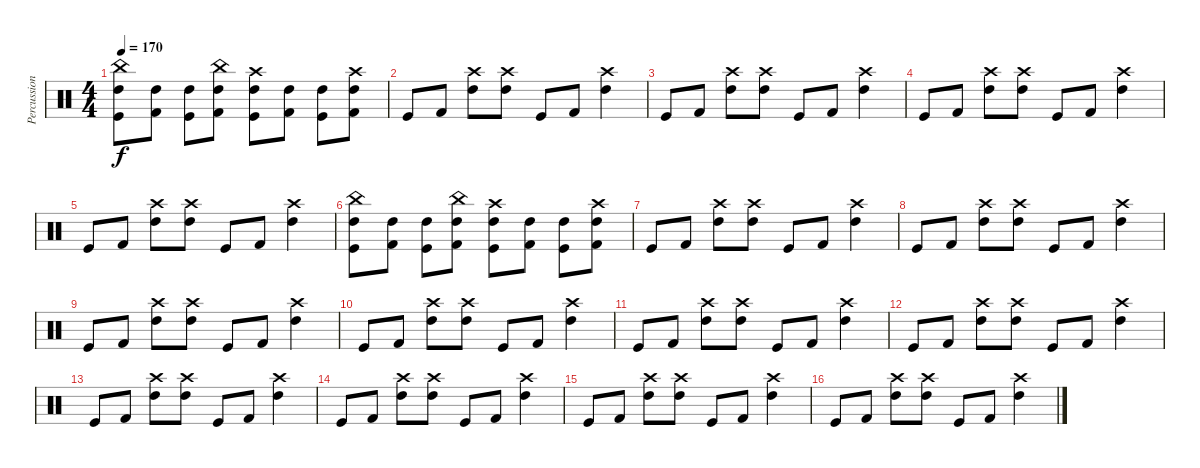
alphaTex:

\track ("Percussions" "Percussion") {instrument percussion}
\staff {score}
\articulation defaults
\ts (4 4)
\tempo 170
\clef neutral
\ks c
("China (hit)" "Kick (hit)" "High Tom (hit)").8{dy f} ("Kick (hit) 2" "High Tom (hit)").8 ("Kick (hit)" "High Tom (hit)").8 ("China (hit)" "Kick (hit) 2" "High Tom (hit)").8 ("Crash high (hit)" "Kick (hit)" "High Tom (hit)").8 ("Kick (hit) 2" "High Tom (hit)").8 ("Kick (hit)" "High Tom (hit)").8 ("Crash high (hit)" "Kick (hit) 2" "High Tom (hit)").8 |
"Kick (hit)".8 "Kick (hit) 2".8 ("Crash high (hit)" "High Tom (hit)").8 ("Crash high (hit)" "High Tom (hit)").8 "Kick (hit)".8 "Kick (hit) 2".8 ("Crash high (hit)" "High Tom (hit)").4 |
"Kick (hit)".8 "Kick (hit) 2".8 ("Crash high (hit)" "High Tom (hit)").8 ("Crash high (hit)" "High Tom (hit)").8 "Kick (hit)".8 "Kick (hit) 2".8 ("Crash high (hit)" "High Tom (hit)").4 |
"Kick (hit)".8 "Kick (hit) 2".8 ("Crash high (hit)" "High Tom (hit)").8 ("Crash high (hit)" "High Tom (hit)").8 "Kick (hit)".8 "Kick (hit) 2".8 ("Crash high (hit)" "High Tom (hit)").4 |
"Kick (hit)".8 "Kick (hit) 2".8 ("Crash high (hit)" "High Tom (hit)").8 ("Crash high (hit)" "High Tom (hit)").8 "Kick (hit)".8 "Kick (hit) 2".8 ("Crash high (hit)" "High Tom (hit)").4 |
("China (hit)" "Kick (hit)" "High Tom (hit)").8 ("Kick (hit) 2" "High Tom (hit)").8 ("Kick (hit)" "High Tom (hit)").8 ("China (hit)" "Kick (hit) 2" "High Tom (hit)").8 ("Crash high (hit)" "Kick (hit)" "High Tom (hit)").8 ("Kick (hit) 2" "High Tom (hit)").8 ("Kick (hit)" "High Tom (hit)").8 ("Crash high (hit)" "Kick (hit) 2" "High Tom (hit)").8 |
"Kick (hit)".8 "Kick (hit) 2".8 ("Crash high (hit)" "High Tom (hit)").8 ("Crash high (hit)" "High Tom (hit)").8 "Kick (hit)".8 "Kick (hit) 2".8 ("Crash high (hit)" "High Tom (hit)").4 |
"Kick (hit)".8 "Kick (hit) 2".8 ("Crash high (hit)" "High Tom (hit)").8 ("Crash high (hit)" "High Tom (hit)").8 "Kick (hit)".8 "Kick (hit) 2".8 ("Crash high (hit)" "High Tom (hit)").4 |
"Kick (hit)".8 "Kick (hit) 2".8 ("Crash high (hit)" "High Tom (hit)").8 ("Crash high (hit)" "High Tom (hit)").8 "Kick (hit)".8 "Kick (hit) 2".8 ("Crash high (hit)" "High Tom (hit)").4 |
"Kick (hit)".8 "Kick (hit) 2".8 ("Crash high (hit)" "High Tom (hit)").8 ("Crash high (hit)" "High Tom (hit)").8 "Kick (hit)".8 "Kick (hit) 2".8 ("Crash high (hit)" "High Tom (hit)").4 |
"Kick (hit)".8 "Kick (hit) 2".8 ("Crash high (hit)" "High Tom (hit)").8 ("Crash high (hit)" "High Tom (hit)").8 "Kick (hit)".8 "Kick (hit) 2".8 ("Crash high (hit)" "High Tom (hit)").4 |
"Kick (hit)".8 "Kick (hit) 2".8 ("Crash high (hit)" "High Tom (hit)").8 ("Crash high (hit)" "High Tom (hit)").8 "Kick (hit)".8 "Kick (hit) 2".8 ("Crash high (hit)" "High Tom (hit)").4 |
"Kick (hit)".8 "Kick (hit) 2".8 ("Crash high (hit)" "High Tom (hit)").8 ("Crash high (hit)" "High Tom (hit)").8 "Kick (hit)".8 "Kick (hit) 2".8 ("Crash high (hit)" "High Tom (hit)").4 |
"Kick (hit)".8 "Kick (hit) 2".8 ("Crash high (hit)" "High Tom (hit)").8 ("Crash high (hit)" "High Tom (hit)").8 "Kick (hit)".8 "Kick (hit) 2".8 ("Crash high (hit)" "High Tom (hit)").4 |
"Kick (hit)".8 "Kick (hit) 2".8 ("Crash high (hit)" "High Tom (hit)").8 ("Crash high (hit)" "High Tom (hit)").8 "Kick (hit)".8 "Kick (hit) 2".8 ("Crash high (hit)" "High Tom (hit)").4 |
"Kick (hit)".8 "Kick (hit) 2".8 ("Crash high (hit)" "High Tom (hit)").8 ("Crash high (hit)" "High Tom (hit)").8 "Kick (hit)".8 "Kick (hit) 2".8 ("Crash high (hit)" "High Tom (hit)").4
